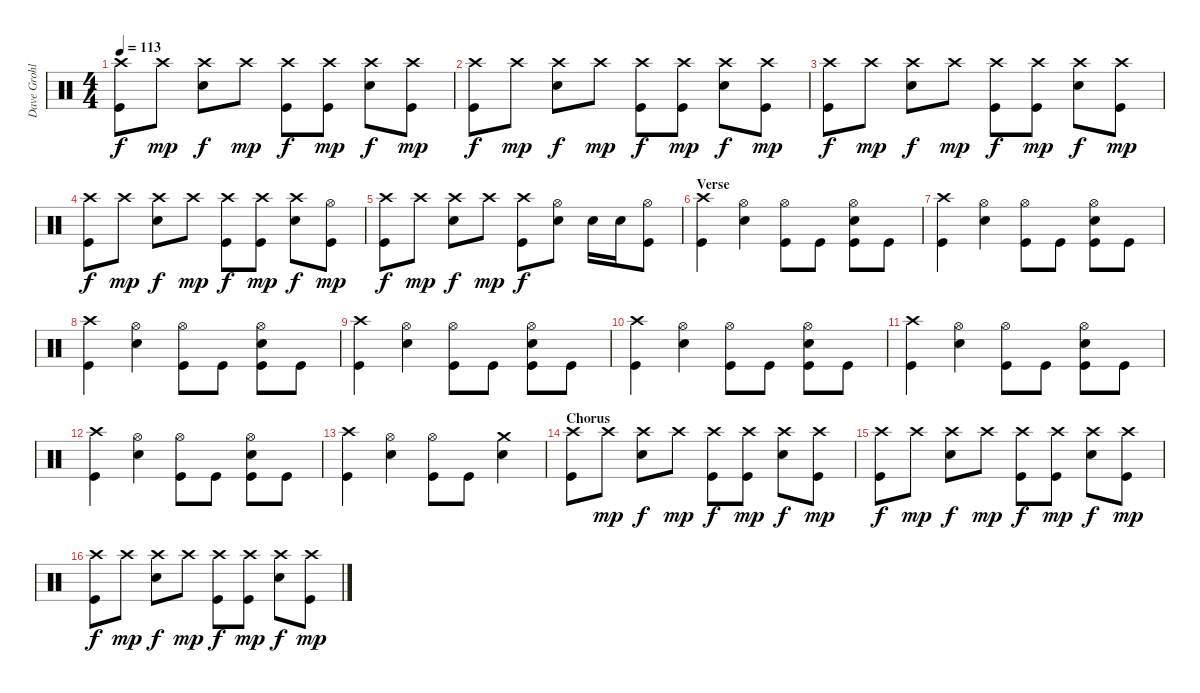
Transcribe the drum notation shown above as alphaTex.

\track ("Dave Grohl" "Dave Grohl") {instrument percussion}
\staff {score}
\articulation defaults
\ts (4 4)
\tempo 113
\clef neutral
\ks c
("Crash high (hit)" "Kick (hit)").8{dy f} "Crash high (hit)".8{dy mp} ("Crash high (hit)" "Electric Snare (hit)").8{dy f} "Crash high (hit)".8{dy mp} ("Crash high (hit)" "Kick (hit)").8{dy f} ("Crash high (hit)" "Kick (hit)").8{dy mp} ("Crash high (hit)" "Electric Snare (hit)").8{dy f} ("Crash high (hit)" "Kick (hit)").8{dy mp} |
("Crash high (hit)" "Kick (hit)").8{dy f} "Crash high (hit)".8{dy mp} ("Crash high (hit)" "Electric Snare (hit)").8{dy f} "Crash high (hit)".8{dy mp} ("Crash high (hit)" "Kick (hit)").8{dy f} ("Crash high (hit)" "Kick (hit)").8{dy mp} ("Crash high (hit)" "Electric Snare (hit)").8{dy f} ("Crash high (hit)" "Kick (hit)").8{dy mp} |
("Crash high (hit)" "Kick (hit)").8{dy f} "Crash high (hit)".8{dy mp} ("Crash high (hit)" "Electric Snare (hit)").8{dy f} "Crash high (hit)".8{dy mp} ("Crash high (hit)" "Kick (hit)").8{dy f} ("Crash high (hit)" "Kick (hit)").8{dy mp} ("Crash high (hit)" "Electric Snare (hit)").8{dy f} ("Crash high (hit)" "Kick (hit)").8{dy mp} |
("Crash high (hit)" "Kick (hit)").8{dy f} "Crash high (hit)".8{dy mp} ("Crash high (hit)" "Electric Snare (hit)").8{dy f} "Crash high (hit)".8{dy mp} ("Crash high (hit)" "Kick (hit)").8{dy f} ("Crash high (hit)" "Kick (hit)").8{dy mp} ("Crash high (hit)" "Electric Snare (hit)").8{dy f} ("Hi-Hat (open)" "Kick (hit)").8{dy mp} |
("Crash high (hit)" "Kick (hit)").8{dy f} "Crash high (hit)".8{dy mp} ("Crash high (hit)" "Electric Snare (hit)").8{dy f} "Crash high (hit)".8{dy mp} ("Crash high (hit)" "Kick (hit)").8{dy f} ("Hi-Hat (open)" "Electric Snare (hit)").8 "Electric Snare (hit)".16 "Electric Snare (hit)".16 ("Hi-Hat (open)" "Kick (hit)").8 |
\section ("" "Verse")
("Crash high (hit)" "Kick (hit)").4 ("Hi-Hat (open)" "Electric Snare (hit)").4 ("Hi-Hat (open)" "Kick (hit)").8 "Kick (hit)".8 ("Hi-Hat (open)" "Electric Snare (hit)" "Kick (hit)").8 "Kick (hit)".8 |
("Crash high (hit)" "Kick (hit)").4 ("Hi-Hat (open)" "Electric Snare (hit)").4 ("Hi-Hat (open)" "Kick (hit)").8 "Kick (hit)".8 ("Hi-Hat (open)" "Electric Snare (hit)" "Kick (hit)").8 "Kick (hit)".8 |
("Crash high (hit)" "Kick (hit)").4 ("Hi-Hat (open)" "Electric Snare (hit)").4 ("Hi-Hat (open)" "Kick (hit)").8 "Kick (hit)".8 ("Hi-Hat (open)" "Electric Snare (hit)" "Kick (hit)").8 "Kick (hit)".8 |
("Crash high (hit)" "Kick (hit)").4 ("Hi-Hat (open)" "Electric Snare (hit)").4 ("Hi-Hat (open)" "Kick (hit)").8 "Kick (hit)".8 ("Hi-Hat (open)" "Electric Snare (hit)" "Kick (hit)").8 "Kick (hit)".8 |
("Crash high (hit)" "Kick (hit)").4 ("Hi-Hat (open)" "Electric Snare (hit)").4 ("Hi-Hat (open)" "Kick (hit)").8 "Kick (hit)".8 ("Hi-Hat (open)" "Electric Snare (hit)" "Kick (hit)").8 "Kick (hit)".8 |
("Crash high (hit)" "Kick (hit)").4 ("Hi-Hat (open)" "Electric Snare (hit)").4 ("Hi-Hat (open)" "Kick (hit)").8 "Kick (hit)".8 ("Hi-Hat (open)" "Electric Snare (hit)" "Kick (hit)").8 "Kick (hit)".8 |
("Crash high (hit)" "Kick (hit)").4 ("Hi-Hat (open)" "Electric Snare (hit)").4 ("Hi-Hat (open)" "Kick (hit)").8 "Kick (hit)".8 ("Hi-Hat (open)" "Electric Snare (hit)" "Kick (hit)").8 "Kick (hit)".8 |
("Crash high (hit)" "Kick (hit)").4 ("Hi-Hat (open)" "Electric Snare (hit)").4 ("Hi-Hat (open)" "Kick (hit)").8 "Kick (hit)".8 ("Crash medium (hit)" "Electric Snare (hit)").4 |
\section ("" "Chorus")
("Crash high (hit)" "Kick (hit)").8 "Crash high (hit)".8{dy mp} ("Crash high (hit)" "Electric Snare (hit)").8{dy f} "Crash high (hit)".8{dy mp} ("Crash high (hit)" "Kick (hit)").8{dy f} ("Crash high (hit)" "Kick (hit)").8{dy mp} ("Crash high (hit)" "Electric Snare (hit)").8{dy f} ("Crash high (hit)" "Kick (hit)").8{dy mp} |
("Crash high (hit)" "Kick (hit)").8{dy f} "Crash high (hit)".8{dy mp} ("Crash high (hit)" "Electric Snare (hit)").8{dy f} "Crash high (hit)".8{dy mp} ("Crash high (hit)" "Kick (hit)").8{dy f} ("Crash high (hit)" "Kick (hit)").8{dy mp} ("Crash high (hit)" "Electric Snare (hit)").8{dy f} ("Crash high (hit)" "Kick (hit)").8{dy mp} |
("Crash high (hit)" "Kick (hit)").8{dy f} "Crash high (hit)".8{dy mp} ("Crash high (hit)" "Electric Snare (hit)").8{dy f} "Crash high (hit)".8{dy mp} ("Crash high (hit)" "Kick (hit)").8{dy f} ("Crash high (hit)" "Kick (hit)").8{dy mp} ("Crash high (hit)" "Electric Snare (hit)").8{dy f} ("Crash high (hit)" "Kick (hit)").8{dy mp}
